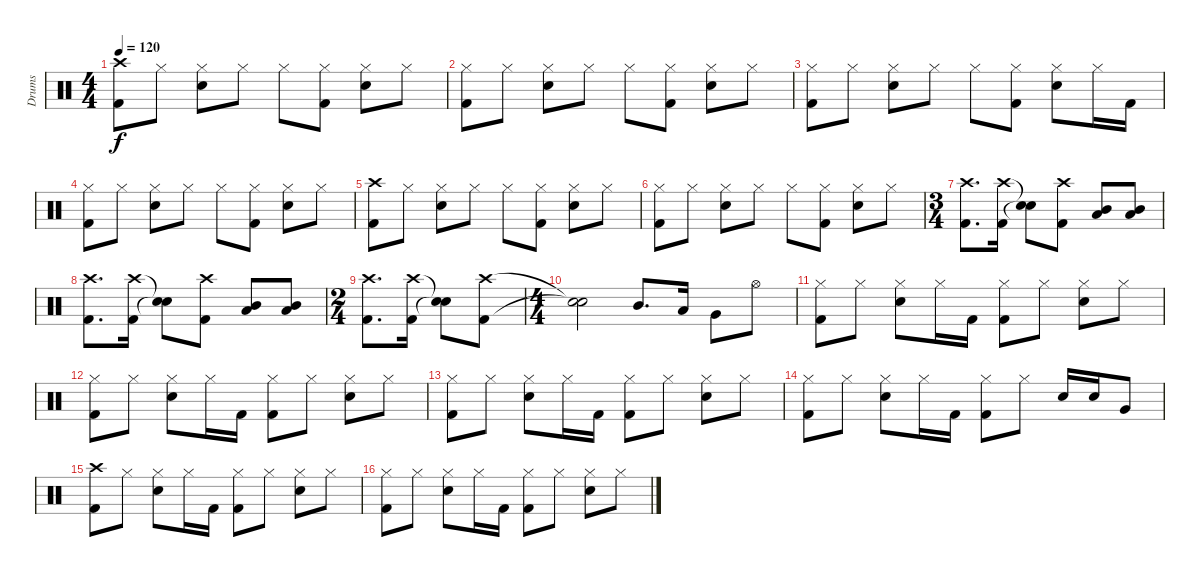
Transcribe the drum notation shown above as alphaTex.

\track ("Drums" "Drums") {instrument percussion}
\staff {score}
\articulation defaults
\ts (4 4)
\tempo 120
\clef neutral
\ks c
("Crash high (hit)" "Kick (hit) 2").8{dy f} "Hi-Hat (closed)".8 ("Hi-Hat (closed)" "Snare (hit) 2").8 "Hi-Hat (closed)".8 "Hi-Hat (closed)".8 ("Hi-Hat (closed)" "Kick (hit) 2").8 ("Hi-Hat (closed)" "Snare (hit) 2").8 "Hi-Hat (closed)".8 |
("Hi-Hat (closed)" "Kick (hit) 2").8 "Hi-Hat (closed)".8 ("Hi-Hat (closed)" "Snare (hit) 2").8 "Hi-Hat (closed)".8 "Hi-Hat (closed)".8 ("Hi-Hat (closed)" "Kick (hit) 2").8 ("Hi-Hat (closed)" "Snare (hit) 2").8 "Hi-Hat (closed)".8 |
("Hi-Hat (closed)" "Kick (hit) 2").8 "Hi-Hat (closed)".8 ("Hi-Hat (closed)" "Snare (hit) 2").8 "Hi-Hat (closed)".8 "Hi-Hat (closed)".8 ("Hi-Hat (closed)" "Kick (hit) 2").8 ("Hi-Hat (closed)" "Snare (hit) 2").8 "Hi-Hat (closed)".16 "Kick (hit) 2".16 |
("Hi-Hat (closed)" "Kick (hit) 2").8 "Hi-Hat (closed)".8 ("Hi-Hat (closed)" "Snare (hit) 2").8 "Hi-Hat (closed)".8 "Hi-Hat (closed)".8 ("Hi-Hat (closed)" "Kick (hit) 2").8 ("Hi-Hat (closed)" "Snare (hit) 2").8 "Hi-Hat (closed)".8 |
("Crash high (hit)" "Kick (hit) 2").8 "Hi-Hat (closed)".8 ("Hi-Hat (closed)" "Snare (hit) 2").8 "Hi-Hat (closed)".8 "Hi-Hat (closed)".8 ("Hi-Hat (closed)" "Kick (hit) 2").8 ("Hi-Hat (closed)" "Snare (hit) 2").8 "Hi-Hat (closed)".8 |
("Hi-Hat (closed)" "Kick (hit) 2").8 "Hi-Hat (closed)".8 ("Hi-Hat (closed)" "Snare (hit) 2").8 "Hi-Hat (closed)".8 "Hi-Hat (closed)".8 ("Hi-Hat (closed)" "Kick (hit) 2").8 ("Hi-Hat (closed)" "Snare (hit) 2").8 "Hi-Hat (closed)".8 |
\ts (3 4)
("Crash high (hit)" "Kick (hit) 2").8{d} ("Crash high (hit)" "Kick (hit) 2").16 ("Snare (hit)"{t} "Snare (hit)"{t}).8 ("Crash high (hit)" "Kick (hit) 2").8 ("Mid Tom (hit)" "Low Tom (hit)").8 ("Mid Tom (hit)" "Low Tom (hit)").8 |
("Crash high (hit)" "Kick (hit) 2").8{d} ("Crash high (hit)" "Kick (hit) 2").16 ("Snare (hit)"{t} "Snare (hit)"{t}).8 ("Crash high (hit)" "Kick (hit) 2").8 ("Mid Tom (hit)" "Low Tom (hit)").8 ("Mid Tom (hit)" "Low Tom (hit)").8 |
\ts (2 4)
("Crash high (hit)" "Kick (hit) 2").8{d} ("Crash high (hit)" "Kick (hit) 2").16 ("Snare (hit)"{t} "Snare (hit)"{t}).8 ("Crash high (hit)" "Kick (hit) 2").8 |
\ts (4 4)
("Snare (hit)"{t} "Snare (hit)"{t}).2 "Mid Tom (hit)".8{d} "Low Tom (hit)".16 "Very Low Tom (hit)".8 "Hi-Hat (open)".8 |
("Hi-Hat (closed)" "Kick (hit) 2").8 "Hi-Hat (closed)".8 ("Hi-Hat (closed)" "Snare (hit) 2").8 "Hi-Hat (closed)".16 "Kick (hit) 2".16 ("Hi-Hat (closed)" "Kick (hit) 2").8 "Hi-Hat (closed)".8 ("Hi-Hat (closed)" "Snare (hit) 2").8 "Hi-Hat (closed)".8 |
("Hi-Hat (closed)" "Kick (hit) 2").8 "Hi-Hat (closed)".8 ("Hi-Hat (closed)" "Snare (hit) 2").8 "Hi-Hat (closed)".16 "Kick (hit) 2".16 ("Hi-Hat (closed)" "Kick (hit) 2").8 "Hi-Hat (closed)".8 ("Hi-Hat (closed)" "Snare (hit) 2").8 "Hi-Hat (closed)".8 |
("Hi-Hat (closed)" "Kick (hit) 2").8 "Hi-Hat (closed)".8 ("Hi-Hat (closed)" "Snare (hit) 2").8 "Hi-Hat (closed)".16 "Kick (hit) 2".16 ("Hi-Hat (closed)" "Kick (hit) 2").8 "Hi-Hat (closed)".8 ("Hi-Hat (closed)" "Snare (hit) 2").8 "Hi-Hat (closed)".8 |
("Hi-Hat (closed)" "Kick (hit) 2").8 "Hi-Hat (closed)".8 ("Hi-Hat (closed)" "Snare (hit) 2").8 "Hi-Hat (closed)".16 "Kick (hit) 2".16 ("Hi-Hat (closed)" "Kick (hit) 2").8 "Hi-Hat (closed)".8 "Snare (hit) 2".16 "Snare (hit) 2".16 "Very Low Tom (hit)".8 |
("Crash high (hit)" "Kick (hit) 2").8 "Hi-Hat (closed)".8 ("Hi-Hat (closed)" "Snare (hit) 2").8 "Hi-Hat (closed)".16 "Kick (hit) 2".16 ("Hi-Hat (closed)" "Kick (hit) 2").8 "Hi-Hat (closed)".8 ("Hi-Hat (closed)" "Snare (hit) 2").8 "Hi-Hat (closed)".8 |
("Hi-Hat (closed)" "Kick (hit) 2").8 "Hi-Hat (closed)".8 ("Hi-Hat (closed)" "Snare (hit) 2").8 "Hi-Hat (closed)".16 "Kick (hit) 2".16 ("Hi-Hat (closed)" "Kick (hit) 2").8 "Hi-Hat (closed)".8 ("Hi-Hat (closed)" "Snare (hit) 2").8 "Hi-Hat (closed)".8
